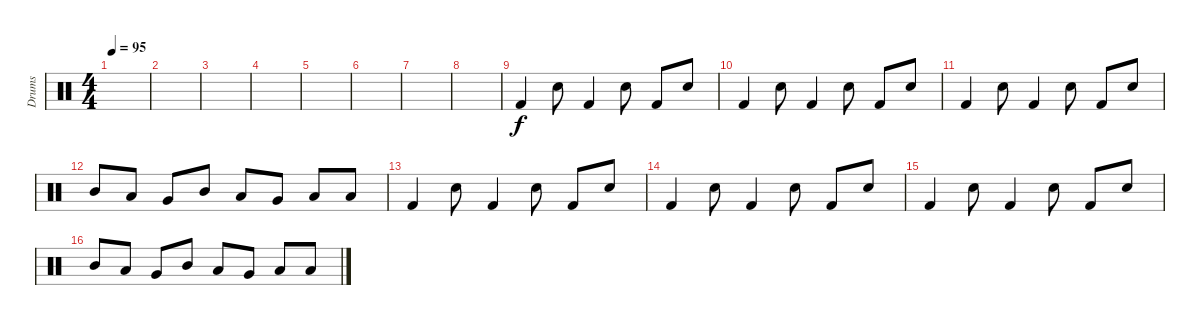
\track ("Drums" "Drums") {instrument percussion}
\staff {score}
\articulation defaults
\ts (4 4)
\tempo 95
\clef neutral
\ks c
|
|
|
|
|
|
|
|
"Kick (hit) 2".4 "Snare (hit) 2".8 "Kick (hit) 2".4 "Snare (hit) 2".8 "Kick (hit) 2".8 "Snare (hit) 2".8 |
"Kick (hit) 2".4 "Snare (hit) 2".8 "Kick (hit) 2".4 "Snare (hit) 2".8 "Kick (hit) 2".8 "Snare (hit) 2".8 |
"Kick (hit) 2".4 "Snare (hit) 2".8 "Kick (hit) 2".4 "Snare (hit) 2".8 "Kick (hit) 2".8 "Snare (hit) 2".8 |
"Mid Tom (hit)".8 "Low Tom (hit)".8 "Very Low Tom (hit)".8 "Mid Tom (hit)".8 "Low Tom (hit)".8 "Very Low Tom (hit)".8 "Low Floor Tom (hit)".8 "Low Floor Tom (hit)".8 |
"Kick (hit) 2".4 "Snare (hit) 2".8 "Kick (hit) 2".4 "Snare (hit) 2".8 "Kick (hit) 2".8 "Snare (hit) 2".8 |
"Kick (hit) 2".4 "Snare (hit) 2".8 "Kick (hit) 2".4 "Snare (hit) 2".8 "Kick (hit) 2".8 "Snare (hit) 2".8 |
"Kick (hit) 2".4 "Snare (hit) 2".8 "Kick (hit) 2".4 "Snare (hit) 2".8 "Kick (hit) 2".8 "Snare (hit) 2".8 |
"Mid Tom (hit)".8 "Low Tom (hit)".8 "Very Low Tom (hit)".8 "Mid Tom (hit)".8 "Low Tom (hit)".8 "Very Low Tom (hit)".8 "Low Floor Tom (hit)".8 "Low Floor Tom (hit)".8
